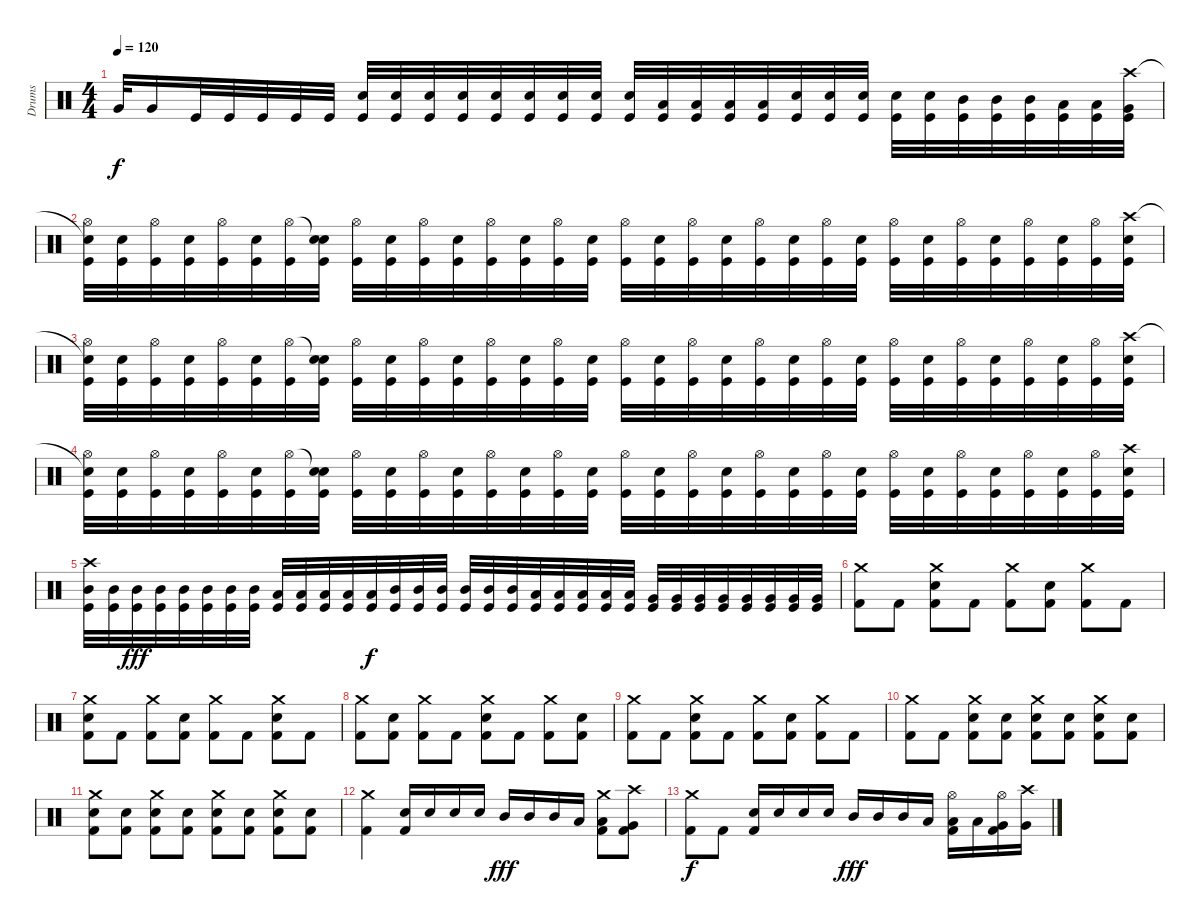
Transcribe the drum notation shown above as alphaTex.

\track ("Drums" "Drums") {instrument percussion}
\staff {score}
\articulation defaults
\ts (4 4)
\tempo 120
\clef neutral
\ks c "Very Low Tom (hit)"{t}.32{dy f} "Very Low Tom (hit)".16 "Kick (hit)".32 "Kick (hit)".32 "Kick (hit)".32 "Kick (hit)".32 "Kick (hit)".32
("Snare (hit) 2" "Kick (hit)").32 ("Snare (hit) 2" "Kick (hit)").32 ("Snare (hit) 2" "Kick (hit)").32 ("Snare (hit) 2" "Kick (hit)").32 ("Snare (hit) 2" "Kick (hit)").32 ("Snare (hit) 2" "Kick (hit)").32 ("Snare (hit) 2" "Kick (hit)").32 ("Snare (hit) 2" "Kick (hit)").32 ("Snare (hit) 2" "Kick (hit)").32 ("Low Tom (hit)" "Kick (hit)").32 ("Low Tom (hit)" "Kick (hit)").32 ("Low Tom (hit)" "Kick (hit)").32 ("Low Tom (hit)" "Kick (hit)").32 ("Snare (hit) 2" "Kick (hit)").32 ("Snare (hit) 2" "Kick (hit)").32 ("Snare (hit) 2" "Kick (hit)").32 ("Snare (hit) 2" "Kick (hit)").32 ("Snare (hit) 2" "Kick (hit)").32 ("Mid Tom (hit)" "Kick (hit)").32 ("Mid Tom (hit)" "Kick (hit)").32 ("Mid Tom (hit)" "Kick (hit)").32 ("Low Tom (hit)" "Kick (hit)").32 ("Low Tom (hit)" "Kick (hit)").32 ("Crash high (hit)" "Very Low Tom (hit)" "Kick (hit)").32 |
("Snare (hit)"{t} "Hi-Hat (open)" "Kick (hit)").32 ("Snare (hit) 2" "Kick (hit)").32 ("Hi-Hat (open)" "Kick (hit)").32 ("Snare (hit) 2" "Kick (hit)").32 ("Hi-Hat (open)" "Kick (hit)").32 ("Snare (hit) 2" "Kick (hit)").32 ("Hi-Hat (open)" "Kick (hit)").32 ("Snare (hit)"{t} "Snare (hit) 2" "Kick (hit)").32 ("Hi-Hat (open)" "Kick (hit)").32 ("Snare (hit) 2" "Kick (hit)").32 ("Hi-Hat (open)" "Kick (hit)").32 ("Snare (hit) 2" "Kick (hit)").32 ("Hi-Hat (open)" "Kick (hit)").32 ("Snare (hit) 2" "Kick (hit)").32 ("Hi-Hat (open)" "Kick (hit)").32 ("Snare (hit) 2" "Kick (hit)").32 ("Hi-Hat (open)" "Kick (hit)").32 ("Snare (hit) 2" "Kick (hit)").32 ("Hi-Hat (open)" "Kick (hit)").32 ("Snare (hit) 2" "Kick (hit)").32 ("Hi-Hat (open)" "Kick (hit)").32 ("Snare (hit) 2" "Kick (hit)").32 ("Hi-Hat (open)" "Kick (hit)").32 ("Snare (hit) 2" "Kick (hit)").32 ("Hi-Hat (open)" "Kick (hit)").32 ("Snare (hit) 2" "Kick (hit)").32 ("Hi-Hat (open)" "Kick (hit)").32 ("Snare (hit) 2" "Kick (hit)").32 ("Hi-Hat (open)" "Kick (hit)").32 ("Snare (hit) 2" "Kick (hit)").32 ("Hi-Hat (open)" "Kick (hit)").32 ("Crash high (hit)" "Snare (hit) 2" "Kick (hit)").32 |
("Snare (hit)"{t} "Hi-Hat (open)" "Kick (hit)").32 ("Snare (hit) 2" "Kick (hit)").32 ("Hi-Hat (open)" "Kick (hit)").32 ("Snare (hit) 2" "Kick (hit)").32 ("Hi-Hat (open)" "Kick (hit)").32 ("Snare (hit) 2" "Kick (hit)").32 ("Hi-Hat (open)" "Kick (hit)").32 ("Snare (hit)"{t} "Snare (hit) 2" "Kick (hit)").32 ("Hi-Hat (open)" "Kick (hit)").32 ("Snare (hit) 2" "Kick (hit)").32 ("Hi-Hat (open)" "Kick (hit)").32 ("Snare (hit) 2" "Kick (hit)").32 ("Hi-Hat (open)" "Kick (hit)").32 ("Snare (hit) 2" "Kick (hit)").32 ("Hi-Hat (open)" "Kick (hit)").32 ("Snare (hit) 2" "Kick (hit)").32 ("Hi-Hat (open)" "Kick (hit)").32 ("Snare (hit) 2" "Kick (hit)").32 ("Hi-Hat (open)" "Kick (hit)").32 ("Snare (hit) 2" "Kick (hit)").32 ("Hi-Hat (open)" "Kick (hit)").32 ("Snare (hit) 2" "Kick (hit)").32 ("Hi-Hat (open)" "Kick (hit)").32 ("Snare (hit) 2" "Kick (hit)").32 ("Hi-Hat (open)" "Kick (hit)").32 ("Snare (hit) 2" "Kick (hit)").32 ("Hi-Hat (open)" "Kick (hit)").32 ("Snare (hit) 2" "Kick (hit)").32 ("Hi-Hat (open)" "Kick (hit)").32 ("Snare (hit) 2" "Kick (hit)").32 ("Hi-Hat (open)" "Kick (hit)").32 ("Crash high (hit)" "Snare (hit) 2" "Kick (hit)").32 |
("Snare (hit)"{t} "Hi-Hat (open)" "Kick (hit)").32 ("Snare (hit) 2" "Kick (hit)").32 ("Hi-Hat (open)" "Kick (hit)").32 ("Snare (hit) 2" "Kick (hit)").32 ("Hi-Hat (open)" "Kick (hit)").32 ("Snare (hit) 2" "Kick (hit)").32 ("Hi-Hat (open)" "Kick (hit)").32 ("Snare (hit)"{t} "Snare (hit) 2" "Kick (hit)").32 ("Hi-Hat (open)" "Kick (hit)").32 ("Snare (hit) 2" "Kick (hit)").32 ("Hi-Hat (open)" "Kick (hit)").32 ("Snare (hit) 2" "Kick (hit)").32 ("Hi-Hat (open)" "Kick (hit)").32 ("Snare (hit) 2" "Kick (hit)").32 ("Hi-Hat (open)" "Kick (hit)").32 ("Snare (hit) 2" "Kick (hit)").32 ("Hi-Hat (open)" "Kick (hit)").32 ("Snare (hit) 2" "Kick (hit)").32 ("Hi-Hat (open)" "Kick (hit)").32 ("Snare (hit) 2" "Kick (hit)").32 ("Hi-Hat (open)" "Kick (hit)").32 ("Snare (hit) 2" "Kick (hit)").32 ("Hi-Hat (open)" "Kick (hit)").32 ("Snare (hit) 2" "Kick (hit)").32 ("Hi-Hat (open)" "Kick (hit)").32 ("Snare (hit) 2" "Kick (hit)").32 ("Hi-Hat (open)" "Kick (hit)").32 ("Snare (hit) 2" "Kick (hit)").32 ("Hi-Hat (open)" "Kick (hit)").32 ("Snare (hit) 2" "Kick (hit)").32 ("Hi-Hat (open)" "Kick (hit)").32 ("Crash high (hit)" "Snare (hit) 2" "Kick (hit)").32 |
("Mid Tom (hit)" "Crash high (hit)" "Kick (hit)").32 ("Mid Tom (hit)" "Kick (hit)").32 ("Mid Tom (hit)" "Kick (hit)").32{dy fff} ("Mid Tom (hit)" "Kick (hit)").32 ("Mid Tom (hit)" "Kick (hit)").32 ("Mid Tom (hit)" "Kick (hit)").32 ("Mid Tom (hit)" "Kick (hit)").32 ("Mid Tom (hit)" "Kick (hit)").32 ("Low Tom (hit)" "Kick (hit)").32 ("Low Tom (hit)" "Kick (hit)").32 ("Low Tom (hit)" "Kick (hit)").32 ("Low Tom (hit)" "Kick (hit)").32 ("Low Tom (hit)" "Kick (hit)").32{dy f} ("Mid Tom (hit)" "Kick (hit)").32 ("Mid Tom (hit)" "Kick (hit)").32 ("Mid Tom (hit)" "Kick (hit)").32 ("Mid Tom (hit)" "Kick (hit)").32 ("Mid Tom (hit)" "Kick (hit)").32 ("Mid Tom (hit)" "Kick (hit)").32 ("Low Tom (hit)" "Kick (hit)").32 ("Low Tom (hit)" "Kick (hit)").32 ("Low Tom (hit)" "Kick (hit)").32 ("Low Tom (hit)" "Kick (hit)").32 ("Low Tom (hit)" "Kick (hit)").32 ("Very Low Tom (hit)" "Kick (hit)").32 ("Very Low Tom (hit)" "Kick (hit)").32 ("Very Low Tom (hit)" "Kick (hit)").32 ("Very Low Tom (hit)" "Kick (hit)").32 ("Very Low Tom (hit)" "Kick (hit)").32 ("Very Low Tom (hit)" "Kick (hit)").32 ("Very Low Tom (hit)" "Kick (hit)").32 ("Very Low Tom (hit)" "Kick (hit)").32 |
("Kick (hit) 2" "Crash medium (hit)").8 "Kick (hit) 2".8 ("Kick (hit) 2" "Snare (hit) 2" "Crash medium (hit)").8 "Kick (hit) 2".8 ("Kick (hit) 2" "Crash medium (hit)").8 ("Kick (hit) 2" "Snare (hit) 2").8 ("Kick (hit) 2" "Crash medium (hit)").8 "Kick (hit) 2".8 |
("Kick (hit) 2" "Snare (hit) 2" "Crash medium (hit)").8 "Kick (hit) 2".8 ("Kick (hit) 2" "Crash medium (hit)").8 ("Kick (hit) 2" "Snare (hit) 2").8 ("Kick (hit) 2" "Crash medium (hit)").8 "Kick (hit) 2".8 ("Kick (hit) 2" "Snare (hit) 2" "Crash medium (hit)").8 "Kick (hit) 2".8 |
("Kick (hit) 2" "Crash medium (hit)").8 ("Kick (hit) 2" "Snare (hit) 2").8 ("Kick (hit) 2" "Crash medium (hit)").8 "Kick (hit) 2".8 ("Kick (hit) 2" "Snare (hit) 2" "Crash medium (hit)").8 "Kick (hit) 2".8 ("Kick (hit) 2" "Crash medium (hit)").8 ("Kick (hit) 2" "Snare (hit) 2").8 |
("Kick (hit) 2" "Crash medium (hit)").8 "Kick (hit) 2".8 ("Kick (hit) 2" "Snare (hit) 2" "Crash medium (hit)").8 "Kick (hit) 2".8 ("Kick (hit) 2" "Crash medium (hit)").8 ("Kick (hit) 2" "Snare (hit) 2").8 ("Kick (hit) 2" "Crash medium (hit)").8 "Kick (hit) 2".8 |
("Kick (hit) 2" "Crash medium (hit)").8 "Kick (hit) 2".8 ("Kick (hit) 2" "Snare (hit) 2" "Crash medium (hit)").8 ("Kick (hit) 2" "Snare (hit) 2").8 ("Kick (hit) 2" "Snare (hit) 2" "Crash medium (hit)").8 ("Kick (hit) 2" "Snare (hit) 2").8 ("Kick (hit) 2" "Snare (hit) 2" "Crash medium (hit)").8 ("Kick (hit) 2" "Snare (hit) 2").8 |
("Kick (hit) 2" "Snare (hit) 2" "Crash medium (hit)").8 ("Kick (hit) 2" "Snare (hit) 2").8 ("Kick (hit) 2" "Snare (hit) 2" "Crash medium (hit)").8 ("Kick (hit) 2" "Snare (hit) 2").8 ("Kick (hit) 2" "Snare (hit) 2" "Crash medium (hit)").8 ("Kick (hit) 2" "Snare (hit) 2").8 ("Kick (hit) 2" "Snare (hit) 2" "Crash medium (hit)").8 ("Kick (hit) 2" "Snare (hit) 2").8 |
("Kick (hit) 2" "Crash medium (hit)").4 ("Kick (hit) 2" "Electric Snare (hit)").16 "Electric Snare (hit)".16 "Electric Snare (hit)".16 "Electric Snare (hit)".16 "Mid Tom (hit)".16{dy fff} "Mid Tom (hit)".16 "Mid Tom (hit)".16 "Low Tom (hit)".16 ("Kick (hit) 2" "Low Tom (hit)" "Crash medium (hit)").8 ("Kick (hit) 2" "Very Low Tom (hit)" "Crash high (hit)").8 |
("Kick (hit) 2" "Crash medium (hit)").8{dy f} "Kick (hit) 2".8 ("Kick (hit) 2" "Electric Snare (hit)").16 "Electric Snare (hit)".16 "Electric Snare (hit)".16 "Electric Snare (hit)".16 "Mid Tom (hit)".16{dy fff} "Mid Tom (hit)".16 "Mid Tom (hit)".16 "Low Tom (hit)".16 ("Kick (hit) 2" "Low Tom (hit)" "Hi-Hat (open)").16 "Low Tom (hit)".16 ("Kick (hit) 2" "Very Low Tom (hit)" "Hi-Hat (open)").16 ("Crash high (hit)" "Very Low Tom (hit)").16
